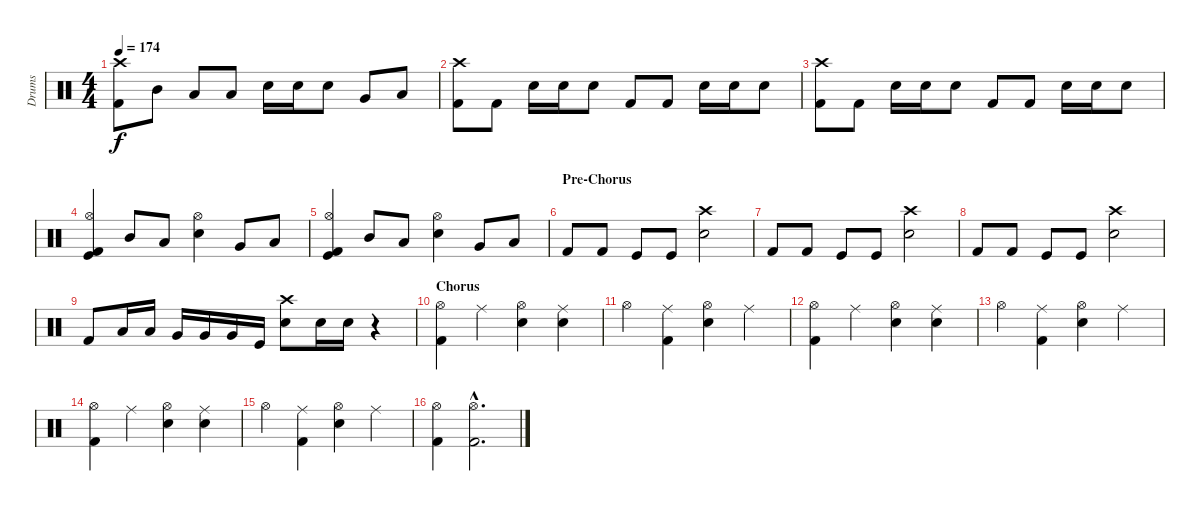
\track ("Drums" "Drums") {instrument percussion}
\staff {score}
\articulation defaults
\ts (4 4)
\tempo 174
\clef neutral
\ks c
("Crash high (hit)" "Kick (hit) 2").8{dy f} "Mid Tom (hit)".8 "Low Tom (hit)".8 "Low Tom (hit)".8 "Snare (hit) 2".16 "Snare (hit) 2".16 "Snare (hit) 2".8 "Very Low Tom (hit)".8 "Low Floor Tom (hit)".8 |
("Crash high (hit)" "Kick (hit) 2").8 "Kick (hit) 2".8 "Snare (hit) 2".16 "Snare (hit) 2".16 "Snare (hit) 2".8 "Kick (hit) 2".8 "Kick (hit) 2".8 "Snare (hit) 2".16 "Snare (hit) 2".16 "Snare (hit) 2".8 |
("Crash high (hit)" "Kick (hit) 2").8 "Kick (hit) 2".8 "Snare (hit) 2".16 "Snare (hit) 2".16 "Snare (hit) 2".8 "Kick (hit) 2".8 "Kick (hit) 2".8 "Snare (hit) 2".16 "Snare (hit) 2".16 "Snare (hit) 2".8 |
("Hi-Hat (open)" "Kick (hit) 2" "Kick (hit)").4 "Mid Tom (hit)".8 "Low Tom (hit)".8 ("Hi-Hat (open)" "Snare (hit) 2").4 "Very Low Tom (hit)".8 "Low Floor Tom (hit)".8 |
("Hi-Hat (open)" "Kick (hit) 2" "Kick (hit)").4 "Mid Tom (hit)".8 "Low Tom (hit)".8 ("Hi-Hat (open)" "Snare (hit) 2").4 "Very Low Tom (hit)".8 "Low Floor Tom (hit)".8 |
\section ("" "Pre-Chorus")
"Kick (hit) 2".8 "Kick (hit) 2".8 "Kick (hit)".8 "Kick (hit)".8 ("Crash high (hit)" "Snare (hit) 2").2 |
"Kick (hit) 2".8 "Kick (hit) 2".8 "Kick (hit)".8 "Kick (hit)".8 ("Crash high (hit)" "Snare (hit) 2").2 |
"Kick (hit) 2".8 "Kick (hit) 2".8 "Kick (hit)".8 "Kick (hit)".8 ("Crash high (hit)" "Snare (hit) 2").2 |
"Kick (hit) 2".8 "Low Tom (hit)".16 "Low Tom (hit)".16 "Very Low Tom (hit)".16 "Very Low Tom (hit)".16 "Very Low Tom (hit)".16 "Kick (hit)".16 ("Crash high (hit)" "Snare (hit) 2").8 "Snare (hit) 2".16 "Snare (hit) 2".16 r.4 |
\section ("" "Chorus")
("Hi-Hat (open)" "Kick (hit) 2").4 "Ride (middle)".4 ("Hi-Hat (open)" "Snare (hit) 2").4 ("Ride (middle)" "Snare (hit) 2").4 |
"Hi-Hat (open)".4 ("Ride (middle)" "Kick (hit) 2").4 ("Hi-Hat (open)" "Snare (hit) 2").4 "Ride (middle)".4 |
("Hi-Hat (open)" "Kick (hit) 2").4 "Ride (middle)".4 ("Hi-Hat (open)" "Snare (hit) 2").4 ("Ride (middle)" "Snare (hit) 2").4 |
"Hi-Hat (open)".4 ("Ride (middle)" "Kick (hit) 2").4 ("Hi-Hat (open)" "Snare (hit) 2").4 "Ride (middle)".4 |
("Hi-Hat (open)" "Kick (hit) 2").4 "Ride (middle)".4 ("Hi-Hat (open)" "Snare (hit) 2").4 ("Ride (middle)" "Snare (hit) 2").4 |
"Hi-Hat (open)".4 ("Ride (middle)" "Kick (hit) 2").4 ("Hi-Hat (open)" "Snare (hit) 2").4 "Ride (middle)".4 |
("Hi-Hat (open)" "Kick (hit) 2").4 ("Hi-Hat (open)"{hac} "Kick (hit) 2"{hac}).2{d}
